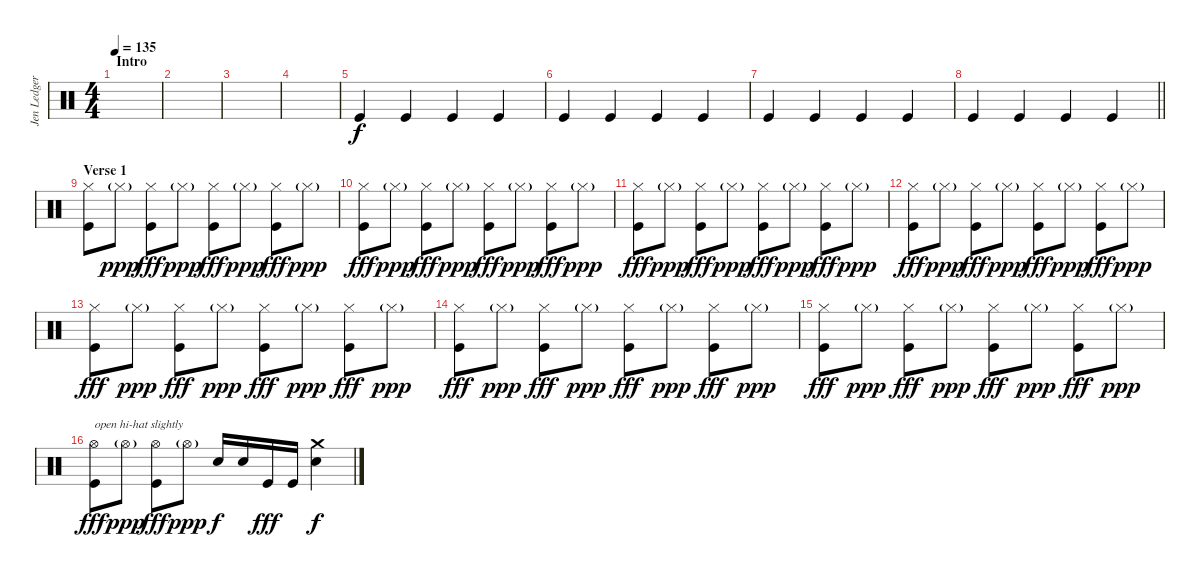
\track ("Jen Ledger" "Jen Ledger") {instrument percussion}
\staff {score}
\articulation defaults
\ts (4 4)
\section ("" "Intro")
\tempo 135
\clef neutral
\ks c
|
|
|
|
"Kick (hit)".4 "Kick (hit)".4 "Kick (hit)".4 "Kick (hit)".4 |
"Kick (hit)".4 "Kick (hit)".4 "Kick (hit)".4 "Kick (hit)".4 |
"Kick (hit)".4 "Kick (hit)".4 "Kick (hit)".4 "Kick (hit)".4 |
\barLineRight lightlight "Kick (hit)".4 "Kick (hit)".4 "Kick (hit)".4 "Kick (hit)".4
|
\section ("" "Verse 1")
("Hi-Hat (closed)" "Kick (hit)").8 "Hi-Hat (closed)"{g}.8{dy ppp} ("Hi-Hat (closed)" "Kick (hit)").8{dy fff} "Hi-Hat (closed)"{g}.8{dy ppp} ("Hi-Hat (closed)" "Kick (hit)").8{dy fff} "Hi-Hat (closed)"{g}.8{dy ppp} ("Hi-Hat (closed)" "Kick (hit)").8{dy fff} "Hi-Hat (closed)"{g}.8{dy ppp} |
("Hi-Hat (closed)" "Kick (hit)").8{dy fff} "Hi-Hat (closed)"{g}.8{dy ppp} ("Hi-Hat (closed)" "Kick (hit)").8{dy fff} "Hi-Hat (closed)"{g}.8{dy ppp} ("Hi-Hat (closed)" "Kick (hit)").8{dy fff} "Hi-Hat (closed)"{g}.8{dy ppp} ("Hi-Hat (closed)" "Kick (hit)").8{dy fff} "Hi-Hat (closed)"{g}.8{dy ppp} |
("Hi-Hat (closed)" "Kick (hit)").8{dy fff} "Hi-Hat (closed)"{g}.8{dy ppp} ("Hi-Hat (closed)" "Kick (hit)").8{dy fff} "Hi-Hat (closed)"{g}.8{dy ppp} ("Hi-Hat (closed)" "Kick (hit)").8{dy fff} "Hi-Hat (closed)"{g}.8{dy ppp} ("Hi-Hat (closed)" "Kick (hit)").8{dy fff} "Hi-Hat (closed)"{g}.8{dy ppp} |
("Hi-Hat (closed)" "Kick (hit)").8{dy fff} "Hi-Hat (closed)"{g}.8{dy ppp} ("Hi-Hat (closed)" "Kick (hit)").8{dy fff} "Hi-Hat (closed)"{g}.8{dy ppp} ("Hi-Hat (closed)" "Kick (hit)").8{dy fff} "Hi-Hat (closed)"{g}.8{dy ppp} ("Hi-Hat (closed)" "Kick (hit)").8{dy fff} "Hi-Hat (closed)"{g}.8{dy ppp} |
("Hi-Hat (closed)" "Kick (hit)").8{dy fff} "Hi-Hat (closed)"{g}.8{dy ppp} ("Hi-Hat (closed)" "Kick (hit)").8{dy fff} "Hi-Hat (closed)"{g}.8{dy ppp} ("Hi-Hat (closed)" "Kick (hit)").8{dy fff} "Hi-Hat (closed)"{g}.8{dy ppp} ("Hi-Hat (closed)" "Kick (hit)").8{dy fff} "Hi-Hat (closed)"{g}.8{dy ppp} |
("Hi-Hat (closed)" "Kick (hit)").8{dy fff} "Hi-Hat (closed)"{g}.8{dy ppp} ("Hi-Hat (closed)" "Kick (hit)").8{dy fff} "Hi-Hat (closed)"{g}.8{dy ppp} ("Hi-Hat (closed)" "Kick (hit)").8{dy fff} "Hi-Hat (closed)"{g}.8{dy ppp} ("Hi-Hat (closed)" "Kick (hit)").8{dy fff} "Hi-Hat (closed)"{g}.8{dy ppp} |
("Hi-Hat (closed)" "Kick (hit)").8{dy fff} "Hi-Hat (closed)"{g}.8{dy ppp} ("Hi-Hat (closed)" "Kick (hit)").8{dy fff} "Hi-Hat (closed)"{g}.8{dy ppp} ("Hi-Hat (closed)" "Kick (hit)").8{dy fff} "Hi-Hat (closed)"{g}.8{dy ppp} ("Hi-Hat (closed)" "Kick (hit)").8{dy fff} "Hi-Hat (closed)"{g}.8{dy ppp} |
("Hi-Hat (open)" "Kick (hit)").8{txt "open hi-hat slightly" dy fff} "Hi-Hat (open)"{g}.8{dy ppp} ("Hi-Hat (open)" "Kick (hit)").8{dy fff} "Hi-Hat (open)"{g}.8{dy ppp} "Snare (hit) 2".16{dy f} "Snare (hit) 2".16 "Kick (hit)".16{dy fff} "Kick (hit)".16 ("Crash medium (hit)" "Snare (hit) 2").4{dy f}
